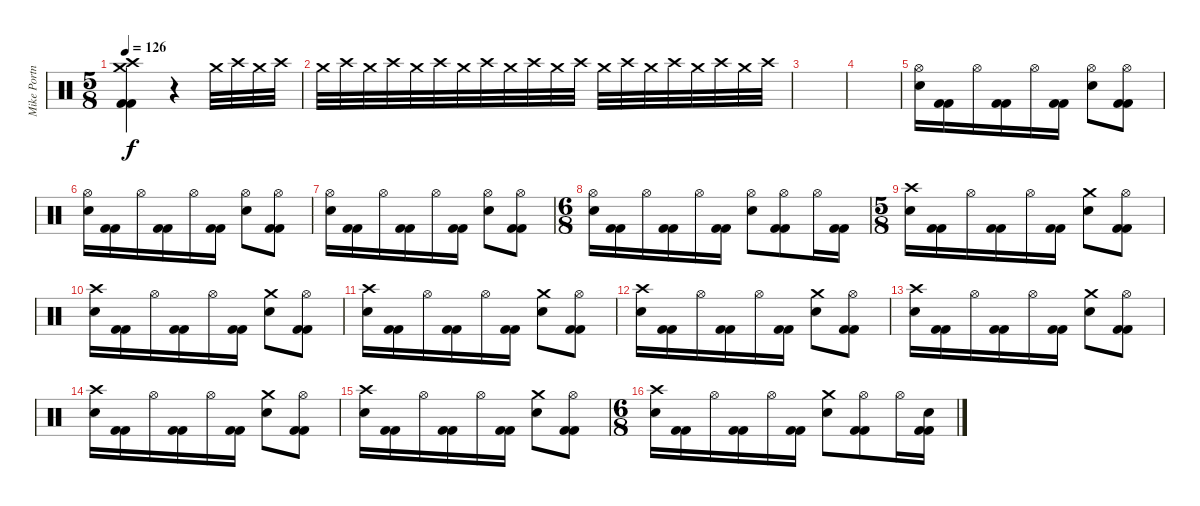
\track ("Mike Portnoy" "Mike Portn") {instrument percussion}
\staff {score}
\articulation defaults
\ts (5 8)
\tempo 126
\clef neutral
\ks c
("Crash medium (hit)" "Crash high (hit)" "Kick (hit) 2" "Kick (hit) 2").4{dy f} r.4 "Crash medium (hit)".32{volume 0} "Crash high (hit)".32{volume 16} "Crash medium (hit)".32 "Crash high (hit)".32 |
"Crash medium (hit)".32 "Crash high (hit)".32 "Crash medium (hit)".32 "Crash high (hit)".32 "Crash medium (hit)".32 "Crash high (hit)".32 "Crash medium (hit)".32 "Crash high (hit)".32 "Crash medium (hit)".32 "Crash high (hit)".32 "Crash medium (hit)".32 "Crash high (hit)".32 "Crash medium (hit)".32 "Crash high (hit)".32 "Crash medium (hit)".32 "Crash high (hit)".32 "Crash medium (hit)".32 "Crash high (hit)".32 "Crash medium (hit)".32 "Crash high (hit)".32 |
|
|
("Hi-Hat (open)" "Electric Snare (hit)").16 ("Kick (hit) 2" "Kick (hit) 2").16 "Hi-Hat (open)".16 ("Kick (hit) 2" "Kick (hit) 2").16 "Hi-Hat (open)".16 ("Kick (hit) 2" "Kick (hit) 2").16 ("Hi-Hat (open)" "Electric Snare (hit)").8 ("Hi-Hat (open)" "Kick (hit) 2" "Kick (hit) 2").8 |
("Hi-Hat (open)" "Electric Snare (hit)").16 ("Kick (hit) 2" "Kick (hit) 2").16 "Hi-Hat (open)".16 ("Kick (hit) 2" "Kick (hit) 2").16 "Hi-Hat (open)".16 ("Kick (hit) 2" "Kick (hit) 2").16 ("Hi-Hat (open)" "Electric Snare (hit)").8 ("Hi-Hat (open)" "Kick (hit) 2" "Kick (hit) 2").8 |
("Hi-Hat (open)" "Electric Snare (hit)").16 ("Kick (hit) 2" "Kick (hit) 2").16 "Hi-Hat (open)".16 ("Kick (hit) 2" "Kick (hit) 2").16 "Hi-Hat (open)".16 ("Kick (hit) 2" "Kick (hit) 2").16 ("Hi-Hat (open)" "Electric Snare (hit)").8 ("Hi-Hat (open)" "Kick (hit) 2" "Kick (hit) 2").8 |
\ts (6 8)
("Hi-Hat (open)" "Electric Snare (hit)").16 ("Kick (hit) 2" "Kick (hit) 2").16 "Hi-Hat (open)".16 ("Kick (hit) 2" "Kick (hit) 2").16 "Hi-Hat (open)".16 ("Kick (hit) 2" "Kick (hit) 2").16 ("Hi-Hat (open)" "Electric Snare (hit)").8 ("Hi-Hat (open)" "Kick (hit) 2" "Kick (hit) 2").8 "Hi-Hat (open)".16 ("Kick (hit) 2" "Kick (hit) 2").16 |
\ts (5 8)
("Crash high (hit)" "Electric Snare (hit)").16 ("Kick (hit) 2" "Kick (hit) 2").16 "Hi-Hat (open)".16 ("Kick (hit) 2" "Kick (hit) 2").16 "Hi-Hat (open)".16 ("Kick (hit) 2" "Kick (hit) 2").16 ("Crash medium (hit)" "Electric Snare (hit)").8 ("Hi-Hat (open)" "Kick (hit) 2" "Kick (hit) 2").8 |
("Crash high (hit)" "Electric Snare (hit)").16 ("Kick (hit) 2" "Kick (hit) 2").16 "Hi-Hat (open)".16 ("Kick (hit) 2" "Kick (hit) 2").16 "Hi-Hat (open)".16 ("Kick (hit) 2" "Kick (hit) 2").16 ("Crash medium (hit)" "Electric Snare (hit)").8 ("Hi-Hat (open)" "Kick (hit) 2" "Kick (hit) 2").8 |
("Crash high (hit)" "Electric Snare (hit)").16 ("Kick (hit) 2" "Kick (hit) 2").16 "Hi-Hat (open)".16 ("Kick (hit) 2" "Kick (hit) 2").16 "Hi-Hat (open)".16 ("Kick (hit) 2" "Kick (hit) 2").16 ("Crash medium (hit)" "Electric Snare (hit)").8 ("Hi-Hat (open)" "Kick (hit) 2" "Kick (hit) 2").8 |
("Crash high (hit)" "Electric Snare (hit)").16 ("Kick (hit) 2" "Kick (hit) 2").16 "Hi-Hat (open)".16 ("Kick (hit) 2" "Kick (hit) 2").16 "Hi-Hat (open)".16 ("Kick (hit) 2" "Kick (hit) 2").16 ("Crash medium (hit)" "Electric Snare (hit)").8 ("Hi-Hat (open)" "Kick (hit) 2" "Kick (hit) 2").8 |
("Crash high (hit)" "Electric Snare (hit)").16 ("Kick (hit) 2" "Kick (hit) 2").16 "Hi-Hat (open)".16 ("Kick (hit) 2" "Kick (hit) 2").16 "Hi-Hat (open)".16 ("Kick (hit) 2" "Kick (hit) 2").16 ("Crash medium (hit)" "Electric Snare (hit)").8 ("Hi-Hat (open)" "Kick (hit) 2" "Kick (hit) 2").8 |
("Crash high (hit)" "Electric Snare (hit)").16 ("Kick (hit) 2" "Kick (hit) 2").16 "Hi-Hat (open)".16 ("Kick (hit) 2" "Kick (hit) 2").16 "Hi-Hat (open)".16 ("Kick (hit) 2" "Kick (hit) 2").16 ("Crash medium (hit)" "Electric Snare (hit)").8 ("Hi-Hat (open)" "Kick (hit) 2" "Kick (hit) 2").8 |
("Crash high (hit)" "Electric Snare (hit)").16 ("Kick (hit) 2" "Kick (hit) 2").16 "Hi-Hat (open)".16 ("Kick (hit) 2" "Kick (hit) 2").16 "Hi-Hat (open)".16 ("Kick (hit) 2" "Kick (hit) 2").16 ("Crash medium (hit)" "Electric Snare (hit)").8 ("Hi-Hat (open)" "Kick (hit) 2" "Kick (hit) 2").8 |
\ts (6 8)
("Crash high (hit)" "Electric Snare (hit)").16 ("Kick (hit) 2" "Kick (hit) 2").16 "Hi-Hat (open)".16 ("Kick (hit) 2" "Kick (hit) 2").16 "Hi-Hat (open)".16 ("Kick (hit) 2" "Kick (hit) 2").16 ("Crash medium (hit)" "Electric Snare (hit)").8 ("Hi-Hat (open)" "Kick (hit) 2" "Kick (hit) 2").8 "Hi-Hat (open)".16 ("Electric Snare (hit)" "Kick (hit) 2" "Kick (hit) 2").16
